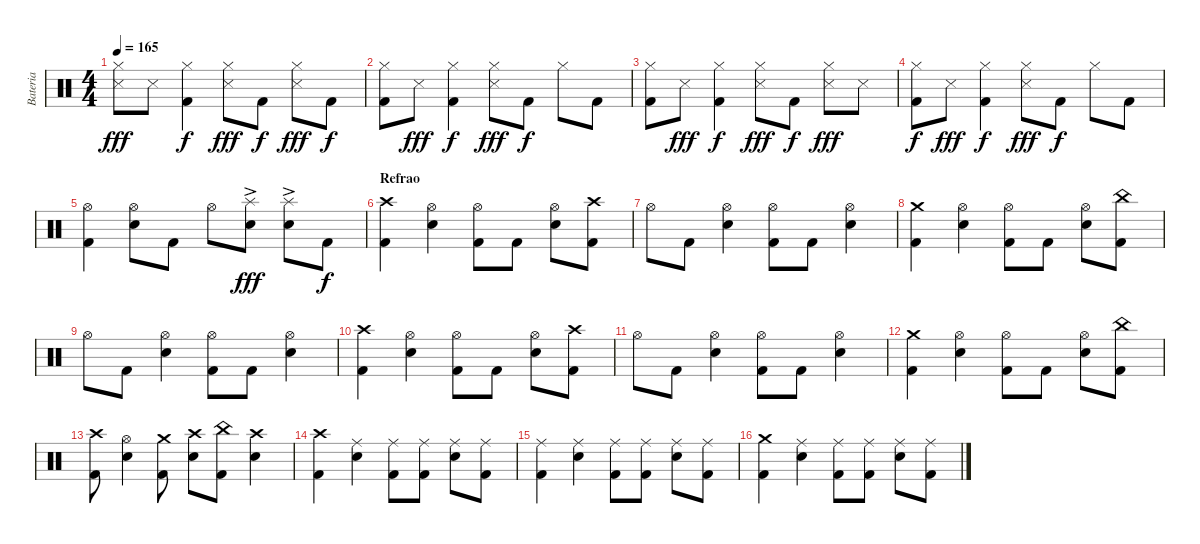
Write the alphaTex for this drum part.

\track ("Bateria" "Bateria") {instrument percussion}
\staff {score}
\articulation defaults
\ts (4 4)
\tempo 165
\clef neutral
\ks c
("Hi-Hat (closed)" "Snare (side stick) 3").8{dy fff} "Snare (side stick) 3".8 ("Hi-Hat (closed)" "Kick (hit) 2").4{dy f} ("Hi-Hat (closed)" "Snare (side stick) 3").8{dy fff} "Kick (hit) 2".8{dy f} ("Hi-Hat (closed)" "Snare (side stick) 3").8{dy fff} "Kick (hit) 2".8{dy f} |
("Hi-Hat (closed)" "Kick (hit) 2").8 "Snare (side stick) 3".8{dy fff} ("Hi-Hat (closed)" "Kick (hit) 2").4{dy f} ("Hi-Hat (closed)" "Snare (side stick) 3").8{dy fff} "Kick (hit) 2".8{dy f} "Hi-Hat (closed)".8 "Kick (hit) 2".8 |
("Hi-Hat (closed)" "Kick (hit) 2").8 "Snare (side stick) 3".8{dy fff} ("Hi-Hat (closed)" "Kick (hit) 2").4{dy f} ("Hi-Hat (closed)" "Snare (side stick) 3").8{dy fff} "Kick (hit) 2".8{dy f} ("Hi-Hat (closed)" "Snare (side stick) 3").8{dy fff} "Snare (side stick) 3".8 |
("Hi-Hat (closed)" "Kick (hit) 2").8{dy f} "Snare (side stick) 3".8{dy fff} ("Hi-Hat (closed)" "Kick (hit) 2").4{dy f} ("Hi-Hat (closed)" "Snare (side stick) 3").8{dy fff} "Kick (hit) 2".8{dy f} "Hi-Hat (closed)".8 "Kick (hit) 2".8 |
("Hi-Hat (open)" "Kick (hit) 2").4 ("Hi-Hat (open)" "Electric Snare (hit)").8 "Kick (hit) 2".8 "Hi-Hat (open)".8 ("Splash (hit)" "Electric Snare (hit)"{ac}).8{dy fff} ("Splash (hit)" "Electric Snare (hit)"{ac}).8 "Kick (hit) 2".8{dy f} |
\section ("" "Refrao")
("Crash high (hit)" "Kick (hit) 2").4 ("Hi-Hat (open)" "Electric Snare (hit)").4 ("Hi-Hat (open)" "Kick (hit) 2").8 "Kick (hit) 2".8 ("Hi-Hat (open)" "Electric Snare (hit)").8 ("Crash high (hit)" "Kick (hit) 2").8 |
"Hi-Hat (open)".8 "Kick (hit) 2".8 ("Hi-Hat (open)" "Electric Snare (hit)").4 ("Hi-Hat (open)" "Kick (hit) 2").8 "Kick (hit) 2".8 ("Hi-Hat (open)" "Electric Snare (hit)").4 |
("Crash medium (hit)" "Kick (hit) 2").4 ("Hi-Hat (open)" "Electric Snare (hit)").4 ("Hi-Hat (open)" "Kick (hit) 2").8 "Kick (hit) 2".8 ("Hi-Hat (open)" "Electric Snare (hit)").8 ("China (hit)" "Kick (hit) 2").8 |
"Hi-Hat (open)".8 "Kick (hit) 2".8 ("Hi-Hat (open)" "Electric Snare (hit)").4 ("Hi-Hat (open)" "Kick (hit) 2").8 "Kick (hit) 2".8 ("Hi-Hat (open)" "Electric Snare (hit)").4 |
("Crash high (hit)" "Kick (hit) 2").4 ("Hi-Hat (open)" "Electric Snare (hit)").4 ("Hi-Hat (open)" "Kick (hit) 2").8 "Kick (hit) 2".8 ("Hi-Hat (open)" "Electric Snare (hit)").8 ("Crash high (hit)" "Kick (hit) 2").8 |
"Hi-Hat (open)".8 "Kick (hit) 2".8 ("Hi-Hat (open)" "Electric Snare (hit)").4 ("Hi-Hat (open)" "Kick (hit) 2").8 "Kick (hit) 2".8 ("Hi-Hat (open)" "Electric Snare (hit)").4 |
("Crash medium (hit)" "Kick (hit) 2").4 ("Hi-Hat (open)" "Electric Snare (hit)").4 ("Hi-Hat (open)" "Kick (hit) 2").8 "Kick (hit) 2".8 ("Hi-Hat (open)" "Electric Snare (hit)").8 ("China (hit)" "Kick (hit) 2").8 |
("Crash high (hit)" "Kick (hit) 2").8 ("Hi-Hat (open)" "Electric Snare (hit)").4 ("Crash medium (hit)" "Kick (hit) 2").8 ("Crash high (hit)" "Electric Snare (hit)").8 ("China (hit)" "Kick (hit) 2").8 ("Crash high (hit)" "Electric Snare (hit)").4 |
("Crash high (hit)" "Kick (hit) 2").4 ("Ride (middle)" "Electric Snare (hit)").4 ("Ride (middle)" "Kick (hit) 2").8 ("Ride (middle)" "Kick (hit) 2").8 ("Ride (middle)" "Electric Snare (hit)").8 ("Ride (middle)" "Kick (hit) 2").8 |
("Ride (middle)" "Kick (hit) 2").4 ("Ride (middle)" "Electric Snare (hit)").4 ("Ride (middle)" "Kick (hit) 2").8 ("Ride (middle)" "Kick (hit) 2").8 ("Ride (middle)" "Electric Snare (hit)").8 ("Ride (middle)" "Kick (hit) 2").8 |
("Crash medium (hit)" "Kick (hit) 2").4 ("Ride (middle)" "Electric Snare (hit)").4 ("Ride (middle)" "Kick (hit) 2").8 ("Ride (middle)" "Kick (hit) 2").8 ("Ride (middle)" "Electric Snare (hit)").8 ("Ride (middle)" "Kick (hit) 2").8
